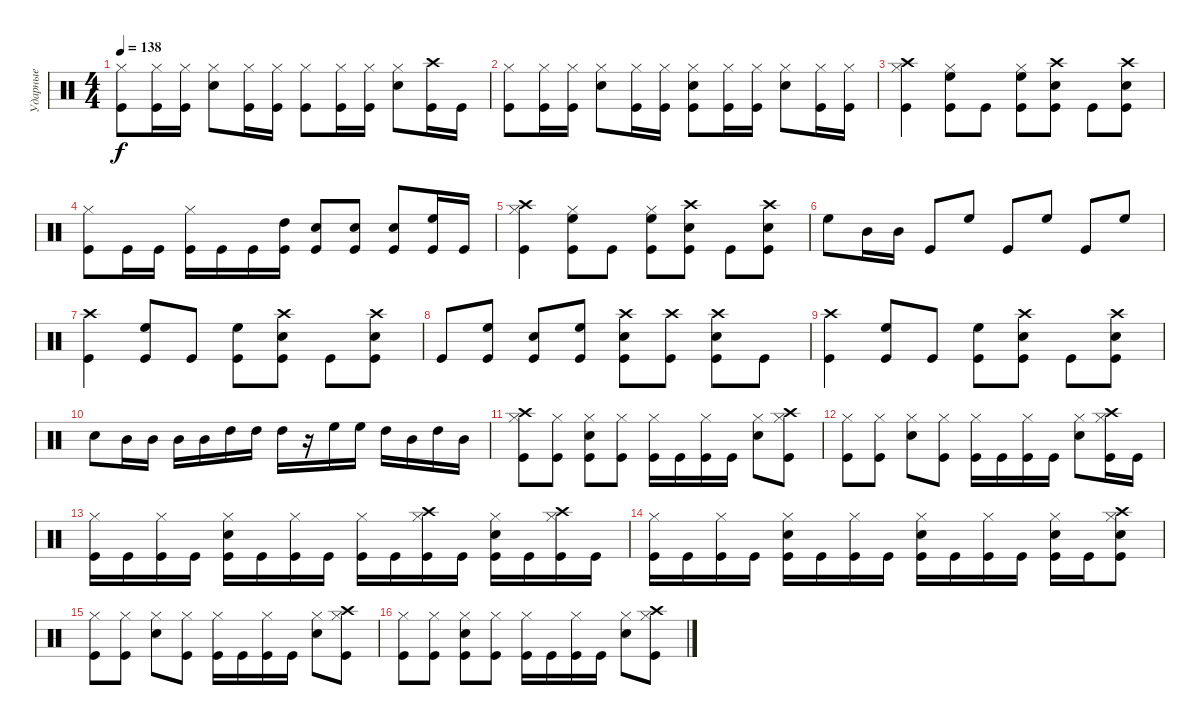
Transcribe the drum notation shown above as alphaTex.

\track ("Ударные" "Ударные") {instrument percussion}
\staff {score}
\articulation defaults
\ts (4 4)
\tempo 138
\clef neutral
\ks c
("Hi-Hat (closed)" "Kick (hit)").8{dy f} ("Hi-Hat (closed)" "Kick (hit)").16 ("Hi-Hat (closed)" "Kick (hit)").16 ("Hi-Hat (closed)" "Electric Snare (hit)").8 ("Hi-Hat (closed)" "Kick (hit)").16 ("Hi-Hat (closed)" "Kick (hit)").16 ("Hi-Hat (closed)" "Kick (hit)").8 ("Hi-Hat (closed)" "Kick (hit)").16 ("Hi-Hat (closed)" "Kick (hit)").16 ("Hi-Hat (closed)" "Electric Snare (hit)").8 ("Crash high (hit)" "Kick (hit)").16 "Kick (hit)".16 |
("Hi-Hat (closed)" "Kick (hit)").8 ("Hi-Hat (closed)" "Kick (hit)").16 ("Hi-Hat (closed)" "Kick (hit)").16 ("Hi-Hat (closed)" "Electric Snare (hit)").8 ("Hi-Hat (closed)" "Kick (hit)").16 ("Hi-Hat (closed)" "Kick (hit)").16 ("Hi-Hat (closed)" "Electric Snare (hit)" "Kick (hit)").8 ("Hi-Hat (closed)" "Kick (hit)").16 ("Hi-Hat (closed)" "Kick (hit)").16 ("Hi-Hat (closed)" "Electric Snare (hit)").8 ("Hi-Hat (closed)" "Kick (hit)").16 ("Hi-Hat (closed)" "Kick (hit)").16 |
("Crash high (hit)" "Hi-Hat (closed)" "Kick (hit)").4 ("Hi-Hat (closed)" "High Floor Tom (hit)" "Kick (hit)").8 "Kick (hit)".8 ("Hi-Hat (closed)" "High Floor Tom (hit)" "Kick (hit)").8 ("Crash high (hit)" "Electric Snare (hit)" "Kick (hit)").8 "Kick (hit)".8 ("Crash high (hit)" "Electric Snare (hit)" "Kick (hit)").8 |
("Hi-Hat (closed)" "Kick (hit)").8 "Kick (hit)".16 "Kick (hit)".16 ("Hi-Hat (closed)" "Kick (hit)").16 "Kick (hit)".16 "Kick (hit)".16 ("High Tom (hit)" "Kick (hit)").16 ("Electric Snare (hit)" "Kick (hit)").8 ("Electric Snare (hit)" "Kick (hit)").8 ("Electric Snare (hit)" "Kick (hit)").8 ("High Floor Tom (hit)" "Kick (hit)").16 "Kick (hit)".16 |
("Crash high (hit)" "Hi-Hat (closed)" "Kick (hit)").4 ("Hi-Hat (closed)" "High Floor Tom (hit)" "Kick (hit)").8 "Kick (hit)".8 ("Hi-Hat (closed)" "High Floor Tom (hit)" "Kick (hit)").8 ("Crash high (hit)" "Electric Snare (hit)" "Kick (hit)").8 "Kick (hit)".8 ("Crash high (hit)" "Electric Snare (hit)" "Kick (hit)").8 |
"High Floor Tom (hit)".8 "Mid Tom (hit)".16 "Mid Tom (hit)".16 "Kick (hit)".8 "High Floor Tom (hit)".8 "Kick (hit)".8 "High Floor Tom (hit)".8 "Kick (hit)".8 "High Floor Tom (hit)".8 |
("Crash high (hit)" "Kick (hit)").4 ("High Floor Tom (hit)" "Kick (hit)").8 "Kick (hit)".8 ("High Floor Tom (hit)" "Kick (hit)").8 ("Crash high (hit)" "Electric Snare (hit)" "Kick (hit)").8 "Kick (hit)".8 ("Crash high (hit)" "Electric Snare (hit)" "Kick (hit)").8 |
"Kick (hit)".8 ("High Floor Tom (hit)" "Kick (hit)").8 ("Electric Snare (hit)" "Kick (hit)").8 ("High Floor Tom (hit)" "Kick (hit)").8 ("Crash high (hit)" "Electric Snare (hit)" "Kick (hit)").8 ("Crash high (hit)" "Kick (hit)").8 ("Crash high (hit)" "Electric Snare (hit)" "Kick (hit)").8 "Kick (hit)".8 |
("Crash high (hit)" "Kick (hit)").4 ("High Floor Tom (hit)" "Kick (hit)").8 "Kick (hit)".8 ("High Floor Tom (hit)" "Kick (hit)").8 ("Crash high (hit)" "Electric Snare (hit)" "Kick (hit)").8 "Kick (hit)".8 ("Crash high (hit)" "Electric Snare (hit)" "Kick (hit)").8 |
"Electric Snare (hit)".8 "Mid Tom (hit)".16 "Mid Tom (hit)".16 "Mid Tom (hit)".16 "Mid Tom (hit)".16 "High Tom (hit)".16 "High Tom (hit)".16 "High Tom (hit)".16 r.16 "High Floor Tom (hit)".16 "High Floor Tom (hit)".16 "High Tom (hit)".16 "Mid Tom (hit)".16 "High Tom (hit)".16 "Mid Tom (hit)".16 |
("Crash high (hit)" "Hi-Hat (closed)" "Kick (hit)").8 ("Hi-Hat (closed)" "Kick (hit)").8 ("Hi-Hat (closed)" "Electric Snare (hit)" "Kick (hit)").8 ("Hi-Hat (closed)" "Kick (hit)").8 ("Hi-Hat (closed)" "Kick (hit)").16 "Kick (hit)".16 ("Hi-Hat (closed)" "Kick (hit)").16 "Kick (hit)".16 ("Hi-Hat (closed)" "Electric Snare (hit)").8 ("Crash high (hit)" "Hi-Hat (closed)" "Kick (hit)").8 |
("Hi-Hat (closed)" "Kick (hit)").8 ("Hi-Hat (closed)" "Kick (hit)").8 ("Hi-Hat (closed)" "Electric Snare (hit)").8 ("Hi-Hat (closed)" "Kick (hit)").8 ("Hi-Hat (closed)" "Kick (hit)").16 "Kick (hit)".16 ("Hi-Hat (closed)" "Kick (hit)").16 "Kick (hit)".16 ("Hi-Hat (closed)" "Electric Snare (hit)").8 ("Crash high (hit)" "Hi-Hat (closed)" "Kick (hit)").16 "Kick (hit)".16 |
("Hi-Hat (closed)" "Kick (hit)").16 "Kick (hit)".16 ("Hi-Hat (closed)" "Kick (hit)").16 "Kick (hit)".16 ("Hi-Hat (closed)" "Electric Snare (hit)" "Kick (hit)").16 "Kick (hit)".16 ("Hi-Hat (closed)" "Kick (hit)").16 "Kick (hit)".16 ("Hi-Hat (closed)" "Kick (hit)").16 "Kick (hit)".16 ("Crash high (hit)" "Hi-Hat (closed)" "Kick (hit)").16 "Kick (hit)".16 ("Hi-Hat (closed)" "Electric Snare (hit)" "Kick (hit)").16 "Kick (hit)".16 ("Crash high (hit)" "Hi-Hat (closed)" "Kick (hit)").16 "Kick (hit)".16 |
("Hi-Hat (closed)" "Kick (hit)").16 "Kick (hit)".16 ("Hi-Hat (closed)" "Kick (hit)").16 "Kick (hit)".16 ("Hi-Hat (closed)" "Electric Snare (hit)" "Kick (hit)").16 "Kick (hit)".16 ("Hi-Hat (closed)" "Kick (hit)").16 "Kick (hit)".16 ("Hi-Hat (closed)" "Electric Snare (hit)" "Kick (hit)").16 "Kick (hit)".16 ("Hi-Hat (closed)" "Kick (hit)").16 "Kick (hit)".16 ("Hi-Hat (closed)" "Electric Snare (hit)" "Kick (hit)").16 "Kick (hit)".16 ("Crash high (hit)" "Hi-Hat (closed)" "Electric Snare (hit)" "Kick (hit)").8 |
("Hi-Hat (closed)" "Kick (hit)").8 ("Hi-Hat (closed)" "Kick (hit)").8 ("Hi-Hat (closed)" "Electric Snare (hit)").8 ("Hi-Hat (closed)" "Kick (hit)").8 ("Hi-Hat (closed)" "Kick (hit)").16 "Kick (hit)".16 ("Hi-Hat (closed)" "Kick (hit)").16 "Kick (hit)".16 ("Hi-Hat (closed)" "Electric Snare (hit)").8 ("Crash high (hit)" "Hi-Hat (closed)" "Kick (hit)").8 |
("Hi-Hat (closed)" "Kick (hit)").8 ("Hi-Hat (closed)" "Kick (hit)").8 ("Hi-Hat (closed)" "Electric Snare (hit)" "Kick (hit)").8 ("Hi-Hat (closed)" "Kick (hit)").8 ("Hi-Hat (closed)" "Kick (hit)").16 "Kick (hit)".16 ("Hi-Hat (closed)" "Kick (hit)").16 "Kick (hit)".16 ("Hi-Hat (closed)" "Electric Snare (hit)").8 ("Crash high (hit)" "Hi-Hat (closed)" "Kick (hit)").8
